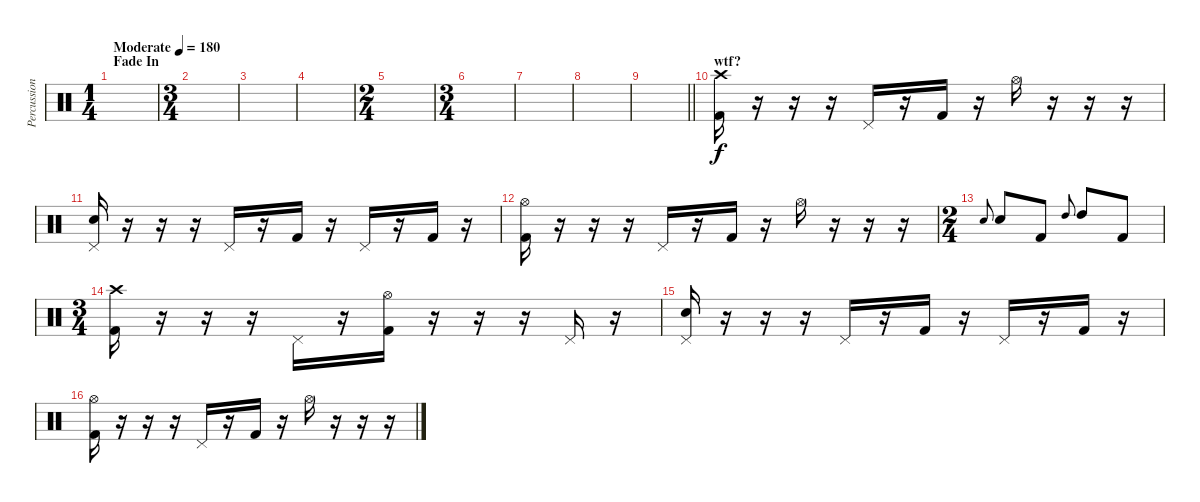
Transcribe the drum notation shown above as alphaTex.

\track ("Percussion" "Percussion") {instrument percussion}
\staff {score}
\articulation defaults
\ts (1 4)
\section ("" "Fade In")
\tempo (180 "Moderate")
\clef neutral
\ks c
|
\ts (3 4)
|
|
|
\ts (2 4)
|
\ts (3 4)
|
|
|
\barLineRight lightlight
|
\section ("" "wtf?")
("Crash high (hit)" "Kick (hit) 2").16 r.16 r.16 r.16 "Pedal Hi-Hat (hit)".16 r.16 "Kick (hit) 2".16 r.16 "Hi-Hat (open)".16 r.16 r.16 r.16 |
("Pedal Hi-Hat (hit)" "Electric Snare (hit)").16 r.16 r.16 r.16 "Pedal Hi-Hat (hit)".16 r.16 "Kick (hit) 2".16 r.16 "Pedal Hi-Hat (hit)".16 r.16 "Kick (hit) 2".16 r.16 |
("Hi-Hat (open)" "Kick (hit) 2").16 r.16 r.16 r.16 "Pedal Hi-Hat (hit)".16 r.16 "Kick (hit) 2".16 r.16 "Hi-Hat (open)".16 r.16 r.16 r.16 |
\ts (2 4)
"Electric Snare (hit)".8{gr onbeat} "Electric Snare (hit)".8 "Kick (hit) 2".8 "High Tom (hit)".8{gr onbeat} "High Tom (hit)".8 "Kick (hit) 2".8 |
\ts (3 4)
("Crash high (hit)" "Kick (hit) 2").16 r.16 r.16 r.16 "Pedal Hi-Hat (hit)".16 r.16 ("Hi-Hat (open)" "Kick (hit) 2").16 r.16 r.16 r.16 "Pedal Hi-Hat (hit)".16 r.16 |
("Pedal Hi-Hat (hit)" "Electric Snare (hit)").16 r.16 r.16 r.16 "Pedal Hi-Hat (hit)".16 r.16 "Kick (hit) 2".16 r.16 "Pedal Hi-Hat (hit)".16 r.16 "Kick (hit) 2".16 r.16 |
("Hi-Hat (open)" "Kick (hit) 2").16 r.16 r.16 r.16 "Pedal Hi-Hat (hit)".16 r.16 "Kick (hit) 2".16 r.16 "Hi-Hat (open)".16 r.16 r.16 r.16
